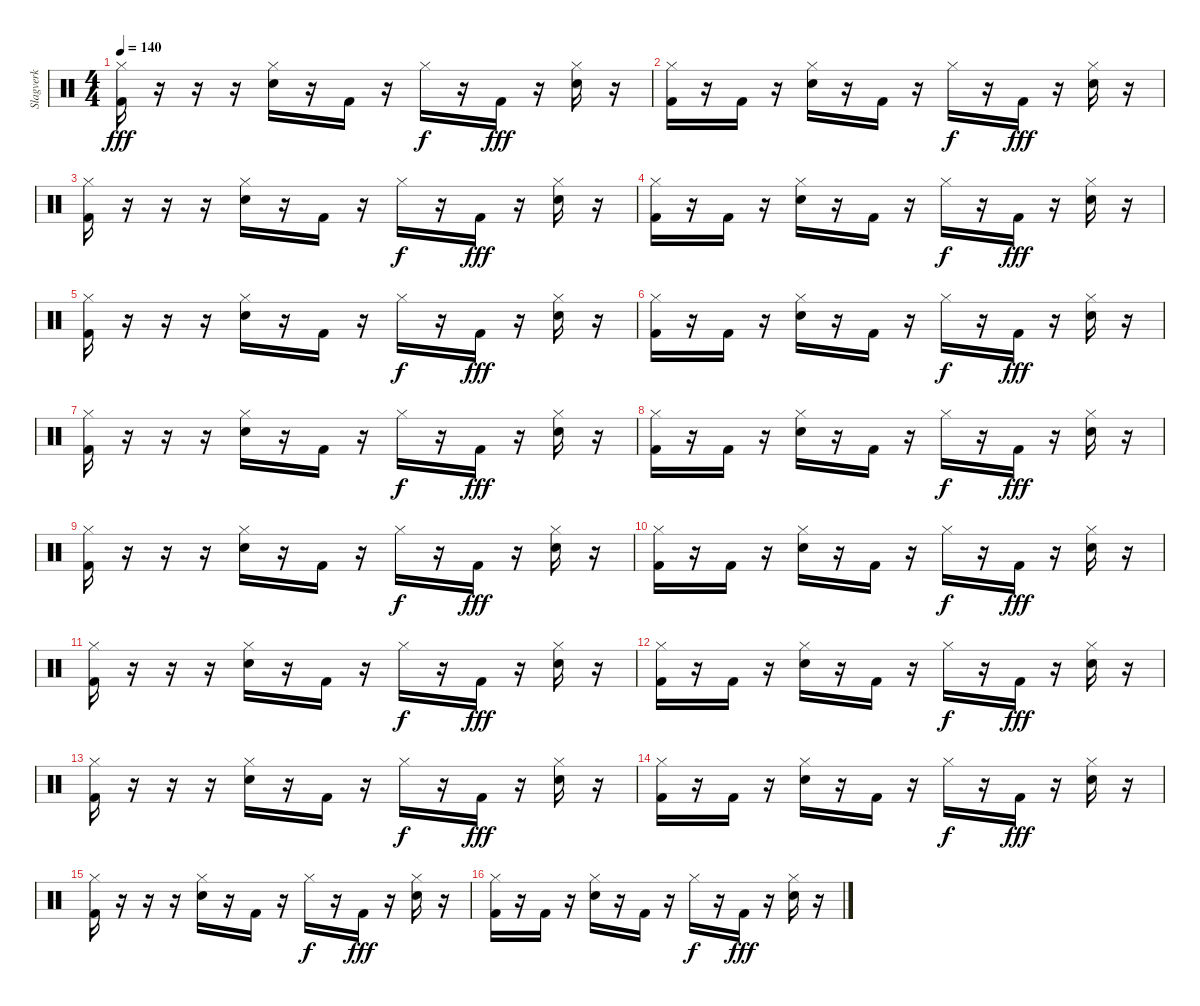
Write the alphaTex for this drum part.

\track ("Slagverk" "Slagverk") {instrument percussion}
\staff {score}
\articulation defaults
\ts (4 4)
\tempo 140
\clef neutral
\ks c
("Hi-Hat (closed)" "Kick (hit) 2").16{dy fff} r.16 r.16 r.16 ("Hi-Hat (closed)" "Electric Snare (hit)").16 r.16 "Kick (hit) 2".16 r.16 "Hi-Hat (closed)".16{dy f} r.16 "Kick (hit) 2".16{dy fff} r.16 ("Hi-Hat (closed)" "Electric Snare (hit)").16 r.16 |
("Hi-Hat (closed)" "Kick (hit) 2").16 r.16 "Kick (hit) 2".16 r.16 ("Hi-Hat (closed)" "Electric Snare (hit)").16 r.16 "Kick (hit) 2".16 r.16 "Hi-Hat (closed)".16{dy f} r.16 "Kick (hit) 2".16{dy fff} r.16 ("Hi-Hat (closed)" "Electric Snare (hit)").16 r.16 |
("Hi-Hat (closed)" "Kick (hit) 2").16 r.16 r.16 r.16 ("Hi-Hat (closed)" "Electric Snare (hit)").16 r.16 "Kick (hit) 2".16 r.16 "Hi-Hat (closed)".16{dy f} r.16 "Kick (hit) 2".16{dy fff} r.16 ("Hi-Hat (closed)" "Electric Snare (hit)").16 r.16 |
("Hi-Hat (closed)" "Kick (hit) 2").16 r.16 "Kick (hit) 2".16 r.16 ("Hi-Hat (closed)" "Electric Snare (hit)").16 r.16 "Kick (hit) 2".16 r.16 "Hi-Hat (closed)".16{dy f} r.16 "Kick (hit) 2".16{dy fff} r.16 ("Hi-Hat (closed)" "Electric Snare (hit)").16 r.16 |
("Hi-Hat (closed)" "Kick (hit) 2").16 r.16 r.16 r.16 ("Hi-Hat (closed)" "Electric Snare (hit)").16 r.16 "Kick (hit) 2".16 r.16 "Hi-Hat (closed)".16{dy f} r.16 "Kick (hit) 2".16{dy fff} r.16 ("Hi-Hat (closed)" "Electric Snare (hit)").16 r.16 |
("Hi-Hat (closed)" "Kick (hit) 2").16 r.16 "Kick (hit) 2".16 r.16 ("Hi-Hat (closed)" "Electric Snare (hit)").16 r.16 "Kick (hit) 2".16 r.16 "Hi-Hat (closed)".16{dy f} r.16 "Kick (hit) 2".16{dy fff} r.16 ("Hi-Hat (closed)" "Electric Snare (hit)").16 r.16 |
("Hi-Hat (closed)" "Kick (hit) 2").16 r.16 r.16 r.16 ("Hi-Hat (closed)" "Electric Snare (hit)").16 r.16 "Kick (hit) 2".16 r.16 "Hi-Hat (closed)".16{dy f} r.16 "Kick (hit) 2".16{dy fff} r.16 ("Hi-Hat (closed)" "Electric Snare (hit)").16 r.16 |
("Hi-Hat (closed)" "Kick (hit) 2").16 r.16 "Kick (hit) 2".16 r.16 ("Hi-Hat (closed)" "Electric Snare (hit)").16 r.16 "Kick (hit) 2".16 r.16 "Hi-Hat (closed)".16{dy f} r.16 "Kick (hit) 2".16{dy fff} r.16 ("Hi-Hat (closed)" "Electric Snare (hit)").16 r.16 |
("Hi-Hat (closed)" "Kick (hit) 2").16 r.16 r.16 r.16 ("Hi-Hat (closed)" "Electric Snare (hit)").16 r.16 "Kick (hit) 2".16 r.16 "Hi-Hat (closed)".16{dy f} r.16 "Kick (hit) 2".16{dy fff} r.16 ("Hi-Hat (closed)" "Electric Snare (hit)").16 r.16 |
("Hi-Hat (closed)" "Kick (hit) 2").16 r.16 "Kick (hit) 2".16 r.16 ("Hi-Hat (closed)" "Electric Snare (hit)").16 r.16 "Kick (hit) 2".16 r.16 "Hi-Hat (closed)".16{dy f} r.16 "Kick (hit) 2".16{dy fff} r.16 ("Hi-Hat (closed)" "Electric Snare (hit)").16 r.16 |
("Hi-Hat (closed)" "Kick (hit) 2").16 r.16 r.16 r.16 ("Hi-Hat (closed)" "Electric Snare (hit)").16 r.16 "Kick (hit) 2".16 r.16 "Hi-Hat (closed)".16{dy f} r.16 "Kick (hit) 2".16{dy fff} r.16 ("Hi-Hat (closed)" "Electric Snare (hit)").16 r.16 |
("Hi-Hat (closed)" "Kick (hit) 2").16 r.16 "Kick (hit) 2".16 r.16 ("Hi-Hat (closed)" "Electric Snare (hit)").16 r.16 "Kick (hit) 2".16 r.16 "Hi-Hat (closed)".16{dy f} r.16 "Kick (hit) 2".16{dy fff} r.16 ("Hi-Hat (closed)" "Electric Snare (hit)").16 r.16 |
("Hi-Hat (closed)" "Kick (hit) 2").16 r.16 r.16 r.16 ("Hi-Hat (closed)" "Electric Snare (hit)").16 r.16 "Kick (hit) 2".16 r.16 "Hi-Hat (closed)".16{dy f} r.16 "Kick (hit) 2".16{dy fff} r.16 ("Hi-Hat (closed)" "Electric Snare (hit)").16 r.16 |
("Hi-Hat (closed)" "Kick (hit) 2").16 r.16 "Kick (hit) 2".16 r.16 ("Hi-Hat (closed)" "Electric Snare (hit)").16 r.16 "Kick (hit) 2".16 r.16 "Hi-Hat (closed)".16{dy f} r.16 "Kick (hit) 2".16{dy fff} r.16 ("Hi-Hat (closed)" "Electric Snare (hit)").16 r.16 |
("Hi-Hat (closed)" "Kick (hit) 2").16 r.16 r.16 r.16 ("Hi-Hat (closed)" "Electric Snare (hit)").16 r.16 "Kick (hit) 2".16 r.16 "Hi-Hat (closed)".16{dy f} r.16 "Kick (hit) 2".16{dy fff} r.16 ("Hi-Hat (closed)" "Electric Snare (hit)").16 r.16 |
("Hi-Hat (closed)" "Kick (hit) 2").16 r.16 "Kick (hit) 2".16 r.16 ("Hi-Hat (closed)" "Electric Snare (hit)").16 r.16 "Kick (hit) 2".16 r.16 "Hi-Hat (closed)".16{dy f} r.16 "Kick (hit) 2".16{dy fff} r.16 ("Hi-Hat (closed)" "Electric Snare (hit)").16 r.16
